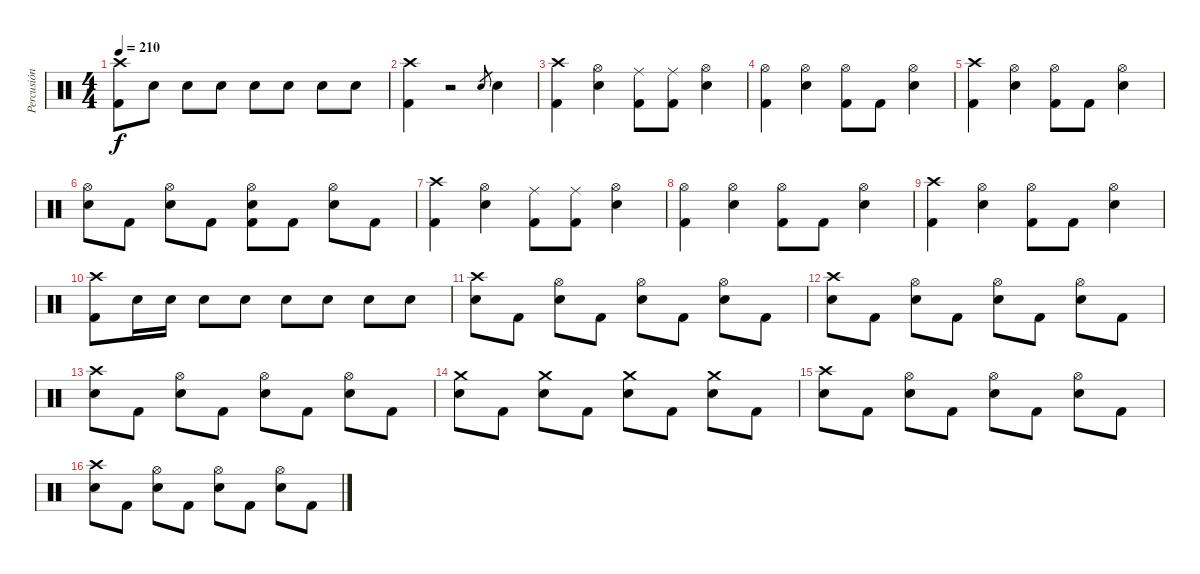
\track ("Percusión" "Percusión") {instrument percussion}
\staff {score}
\articulation defaults
\ts (4 4)
\tempo 210
\clef neutral
\ks c
("Crash high (hit)" "Kick (hit) 2").8{dy f} "Electric Snare (hit)".8 "Electric Snare (hit)".8 "Electric Snare (hit)".8 "Electric Snare (hit)".8 "Electric Snare (hit)".8 "Electric Snare (hit)".8 "Electric Snare (hit)".8 |
("Crash high (hit)" "Kick (hit) 2").4 r.2 "Electric Snare (hit)".8{gr} "Electric Snare (hit)".4 |
("Crash high (hit)" "Kick (hit) 2").4 ("Hi-Hat (open)" "Electric Snare (hit)").4 ("Ride (middle)" "Kick (hit) 2").8 ("Ride (middle)" "Kick (hit) 2").8 ("Hi-Hat (open)" "Electric Snare (hit)").4 |
("Hi-Hat (open)" "Kick (hit) 2").4 ("Hi-Hat (open)" "Electric Snare (hit)").4 ("Hi-Hat (open)" "Kick (hit) 2").8 "Kick (hit) 2".8 ("Hi-Hat (open)" "Electric Snare (hit)").4 |
("Crash high (hit)" "Kick (hit) 2").4 ("Hi-Hat (open)" "Electric Snare (hit)").4 ("Hi-Hat (open)" "Kick (hit) 2").8 "Kick (hit) 2".8 ("Hi-Hat (open)" "Electric Snare (hit)").4 |
("Hi-Hat (open)" "Electric Snare (hit)").8 "Kick (hit) 2".8 ("Hi-Hat (open)" "Electric Snare (hit)").8 "Kick (hit) 2".8 ("Hi-Hat (open)" "Electric Snare (hit)" "Kick (hit) 2").8 "Kick (hit) 2".8 ("Hi-Hat (open)" "Electric Snare (hit)").8 "Kick (hit) 2".8 |
("Crash high (hit)" "Kick (hit) 2").4 ("Hi-Hat (open)" "Electric Snare (hit)").4 ("Ride (middle)" "Kick (hit) 2").8 ("Ride (middle)" "Kick (hit) 2").8 ("Hi-Hat (open)" "Electric Snare (hit)").4 |
("Hi-Hat (open)" "Kick (hit) 2").4 ("Hi-Hat (open)" "Electric Snare (hit)").4 ("Hi-Hat (open)" "Kick (hit) 2").8 "Kick (hit) 2".8 ("Hi-Hat (open)" "Electric Snare (hit)").4 |
("Crash high (hit)" "Kick (hit) 2").4 ("Hi-Hat (open)" "Electric Snare (hit)").4 ("Hi-Hat (open)" "Kick (hit) 2").8 "Kick (hit) 2".8 ("Hi-Hat (open)" "Electric Snare (hit)").4 |
("Crash high (hit)" "Kick (hit) 2").8 "Electric Snare (hit)".16 "Electric Snare (hit)".16 "Electric Snare (hit)".8 "Electric Snare (hit)".8 "Electric Snare (hit)".8 "Electric Snare (hit)".8 "Electric Snare (hit)".8 "Electric Snare (hit)".8 |
("Crash high (hit)" "Electric Snare (hit)").8 "Kick (hit) 2".8 ("Hi-Hat (open)" "Electric Snare (hit)").8 "Kick (hit) 2".8 ("Hi-Hat (open)" "Electric Snare (hit)").8 "Kick (hit) 2".8 ("Hi-Hat (open)" "Electric Snare (hit)").8 "Kick (hit) 2".8 |
("Crash high (hit)" "Electric Snare (hit)").8 "Kick (hit) 2".8 ("Hi-Hat (open)" "Electric Snare (hit)").8 "Kick (hit) 2".8 ("Hi-Hat (open)" "Electric Snare (hit)").8 "Kick (hit) 2".8 ("Hi-Hat (open)" "Electric Snare (hit)").8 "Kick (hit) 2".8 |
("Crash high (hit)" "Electric Snare (hit)").8 "Kick (hit) 2".8 ("Hi-Hat (open)" "Electric Snare (hit)").8 "Kick (hit) 2".8 ("Hi-Hat (open)" "Electric Snare (hit)").8 "Kick (hit) 2".8 ("Hi-Hat (open)" "Electric Snare (hit)").8 "Kick (hit) 2".8 |
("Crash medium (hit)" "Electric Snare (hit)").8 "Kick (hit) 2".8 ("Crash medium (hit)" "Electric Snare (hit)").8 "Kick (hit) 2".8 ("Crash medium (hit)" "Electric Snare (hit)").8 "Kick (hit) 2".8 ("Crash medium (hit)" "Electric Snare (hit)").8 "Kick (hit) 2".8 |
("Crash high (hit)" "Electric Snare (hit)").8 "Kick (hit) 2".8 ("Hi-Hat (open)" "Electric Snare (hit)").8 "Kick (hit) 2".8 ("Hi-Hat (open)" "Electric Snare (hit)").8 "Kick (hit) 2".8 ("Hi-Hat (open)" "Electric Snare (hit)").8 "Kick (hit) 2".8 |
("Crash high (hit)" "Electric Snare (hit)").8 "Kick (hit) 2".8 ("Hi-Hat (open)" "Electric Snare (hit)").8 "Kick (hit) 2".8 ("Hi-Hat (open)" "Electric Snare (hit)").8 "Kick (hit) 2".8 ("Hi-Hat (open)" "Electric Snare (hit)").8 "Kick (hit) 2".8
